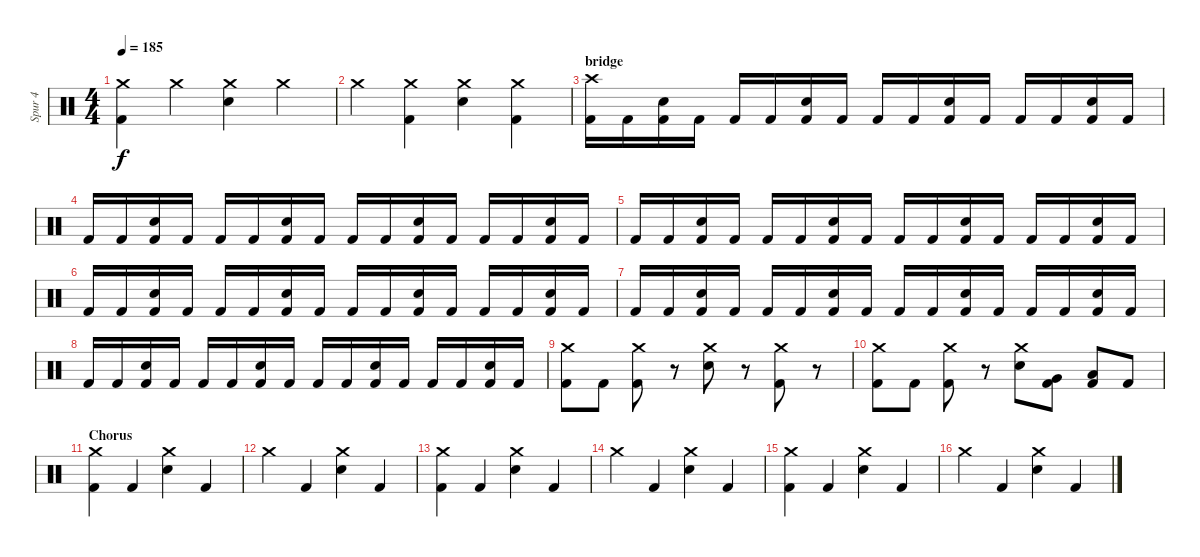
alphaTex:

\track ("Spur 4" "Spur 4") {instrument percussion}
\staff {score}
\articulation defaults
\ts (4 4)
\tempo 185
\clef neutral
\ks c
("Crash medium (hit)" "Kick (hit) 2").4{dy f} "Crash medium (hit)".4 ("Crash medium (hit)" "Electric Snare (hit)").4 "Crash medium (hit)".4 |
"Crash medium (hit)".4 ("Crash medium (hit)" "Kick (hit) 2").4 ("Crash medium (hit)" "Electric Snare (hit)").4 ("Crash medium (hit)" "Kick (hit) 2").4 |
\section ("" "bridge")
("Crash high (hit)" "Kick (hit) 2").16 "Kick (hit) 2".16 ("Electric Snare (hit)" "Kick (hit) 2").16 "Kick (hit) 2".16 "Kick (hit) 2".16 "Kick (hit) 2".16 ("Electric Snare (hit)" "Kick (hit) 2").16 "Kick (hit) 2".16 "Kick (hit) 2".16 "Kick (hit) 2".16 ("Electric Snare (hit)" "Kick (hit) 2").16 "Kick (hit) 2".16 "Kick (hit) 2".16 "Kick (hit) 2".16 ("Electric Snare (hit)" "Kick (hit) 2").16 "Kick (hit) 2".16 |
"Kick (hit) 2".16 "Kick (hit) 2".16 ("Electric Snare (hit)" "Kick (hit) 2").16 "Kick (hit) 2".16 "Kick (hit) 2".16 "Kick (hit) 2".16 ("Electric Snare (hit)" "Kick (hit) 2").16 "Kick (hit) 2".16 "Kick (hit) 2".16 "Kick (hit) 2".16 ("Electric Snare (hit)" "Kick (hit) 2").16 "Kick (hit) 2".16 "Kick (hit) 2".16 "Kick (hit) 2".16 ("Electric Snare (hit)" "Kick (hit) 2").16 "Kick (hit) 2".16 |
"Kick (hit) 2".16 "Kick (hit) 2".16 ("Electric Snare (hit)" "Kick (hit) 2").16 "Kick (hit) 2".16 "Kick (hit) 2".16 "Kick (hit) 2".16 ("Electric Snare (hit)" "Kick (hit) 2").16 "Kick (hit) 2".16 "Kick (hit) 2".16 "Kick (hit) 2".16 ("Electric Snare (hit)" "Kick (hit) 2").16 "Kick (hit) 2".16 "Kick (hit) 2".16 "Kick (hit) 2".16 ("Electric Snare (hit)" "Kick (hit) 2").16 "Kick (hit) 2".16 |
"Kick (hit) 2".16 "Kick (hit) 2".16 ("Electric Snare (hit)" "Kick (hit) 2").16 "Kick (hit) 2".16 "Kick (hit) 2".16 "Kick (hit) 2".16 ("Electric Snare (hit)" "Kick (hit) 2").16 "Kick (hit) 2".16 "Kick (hit) 2".16 "Kick (hit) 2".16 ("Electric Snare (hit)" "Kick (hit) 2").16 "Kick (hit) 2".16 "Kick (hit) 2".16 "Kick (hit) 2".16 ("Electric Snare (hit)" "Kick (hit) 2").16 "Kick (hit) 2".16 |
"Kick (hit) 2".16 "Kick (hit) 2".16 ("Electric Snare (hit)" "Kick (hit) 2").16 "Kick (hit) 2".16 "Kick (hit) 2".16 "Kick (hit) 2".16 ("Electric Snare (hit)" "Kick (hit) 2").16 "Kick (hit) 2".16 "Kick (hit) 2".16 "Kick (hit) 2".16 ("Electric Snare (hit)" "Kick (hit) 2").16 "Kick (hit) 2".16 "Kick (hit) 2".16 "Kick (hit) 2".16 ("Electric Snare (hit)" "Kick (hit) 2").16 "Kick (hit) 2".16 |
"Kick (hit) 2".16 "Kick (hit) 2".16 ("Electric Snare (hit)" "Kick (hit) 2").16 "Kick (hit) 2".16 "Kick (hit) 2".16 "Kick (hit) 2".16 ("Electric Snare (hit)" "Kick (hit) 2").16 "Kick (hit) 2".16 "Kick (hit) 2".16 "Kick (hit) 2".16 ("Electric Snare (hit)" "Kick (hit) 2").16 "Kick (hit) 2".16 "Kick (hit) 2".16 "Kick (hit) 2".16 ("Electric Snare (hit)" "Kick (hit) 2").16 "Kick (hit) 2".16 |
("Crash medium (hit)" "Kick (hit) 2").8 "Kick (hit) 2".8 ("Crash medium (hit)" "Kick (hit) 2").8 r.8 ("Crash medium (hit)" "Electric Snare (hit)").8 r.8 ("Crash medium (hit)" "Kick (hit) 2").8 r.8 |
("Crash medium (hit)" "Kick (hit) 2").8 "Kick (hit) 2".8 ("Crash medium (hit)" "Kick (hit) 2").8 r.8 ("Crash medium (hit)" "Electric Snare (hit)").8 ("Very Low Tom (hit)" "Kick (hit) 2").8 ("Low Floor Tom (hit)" "Kick (hit) 2").8 "Kick (hit) 2".8 |
\section ("" "Chorus")
("Crash medium (hit)" "Kick (hit) 2").4 "Kick (hit) 2".4 ("Crash medium (hit)" "Electric Snare (hit)").4 "Kick (hit) 2".4 |
"Crash medium (hit)".4 "Kick (hit) 2".4 ("Crash medium (hit)" "Electric Snare (hit)").4 "Kick (hit) 2".4 |
("Crash medium (hit)" "Kick (hit) 2").4 "Kick (hit) 2".4 ("Crash medium (hit)" "Electric Snare (hit)").4 "Kick (hit) 2".4 |
"Crash medium (hit)".4 "Kick (hit) 2".4 ("Crash medium (hit)" "Electric Snare (hit)").4 "Kick (hit) 2".4 |
("Crash medium (hit)" "Kick (hit) 2").4 "Kick (hit) 2".4 ("Crash medium (hit)" "Electric Snare (hit)").4 "Kick (hit) 2".4 |
"Crash medium (hit)".4 "Kick (hit) 2".4 ("Crash medium (hit)" "Electric Snare (hit)").4 "Kick (hit) 2".4
